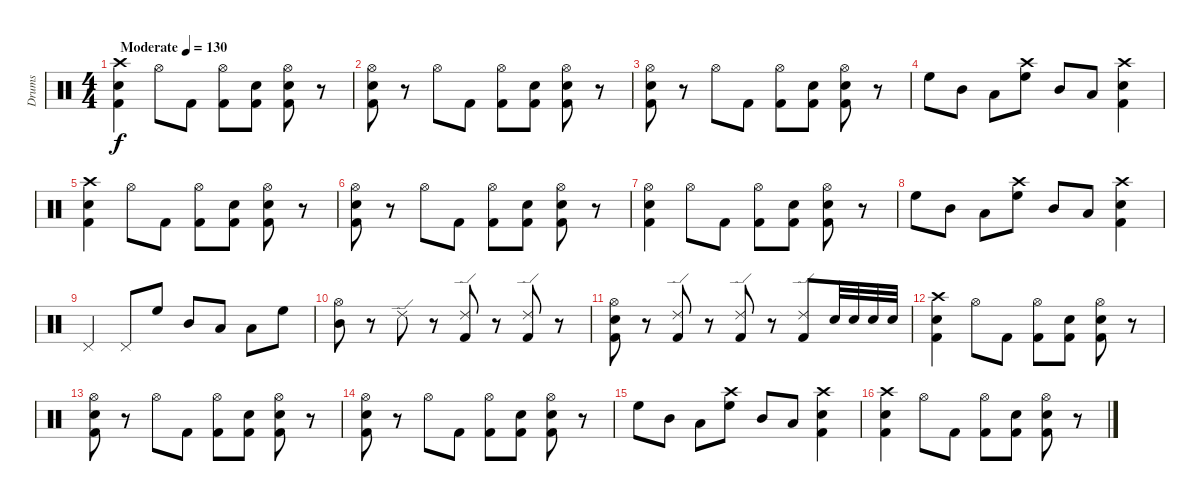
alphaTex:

\track ("Drums" "Drums") {instrument percussion}
\staff {score}
\articulation defaults
\ts (4 4)
\tempo (130 "Moderate")
\clef neutral
\ks c
("Crash high (hit)" "Electric Snare (hit)" "Kick (hit) 2").4{dy f} "Hi-Hat (open)".8 "Kick (hit) 2".8 ("Hi-Hat (open)" "Kick (hit) 2").8 ("Electric Snare (hit)" "Kick (hit) 2").8 ("Hi-Hat (open)" "Electric Snare (hit)" "Kick (hit) 2").8 r.8 |
("Hi-Hat (open)" "Electric Snare (hit)" "Kick (hit) 2").8 r.8 "Hi-Hat (open)".8 "Kick (hit) 2".8 ("Hi-Hat (open)" "Kick (hit) 2").8 ("Electric Snare (hit)" "Kick (hit) 2").8 ("Hi-Hat (open)" "Electric Snare (hit)" "Kick (hit) 2").8 r.8 |
("Hi-Hat (open)" "Electric Snare (hit)" "Kick (hit) 2").8 r.8 "Hi-Hat (open)".8 "Kick (hit) 2".8 ("Hi-Hat (open)" "Kick (hit) 2").8 ("Electric Snare (hit)" "Kick (hit) 2").8 ("Hi-Hat (open)" "Electric Snare (hit)" "Kick (hit) 2").8 r.8 |
"High Floor Tom (hit)".8 "Mid Tom (hit)".8 "Low Tom (hit)".8 ("Crash high (hit)" "High Floor Tom (hit)").8 "Mid Tom (hit)".8 "Low Tom (hit)".8 ("Crash high (hit)" "Electric Snare (hit)" "Kick (hit) 2").4 |
("Crash high (hit)" "Electric Snare (hit)" "Kick (hit) 2").4 "Hi-Hat (open)".8 "Kick (hit) 2".8 ("Hi-Hat (open)" "Kick (hit) 2").8 ("Electric Snare (hit)" "Kick (hit) 2").8 ("Hi-Hat (open)" "Electric Snare (hit)" "Kick (hit) 2").8 r.8 |
("Hi-Hat (open)" "Electric Snare (hit)" "Kick (hit) 2").8 r.8 "Hi-Hat (open)".8 "Kick (hit) 2".8 ("Hi-Hat (open)" "Kick (hit) 2").8 ("Electric Snare (hit)" "Kick (hit) 2").8 ("Hi-Hat (open)" "Electric Snare (hit)" "Kick (hit) 2").8 r.8 |
("Hi-Hat (open)" "Electric Snare (hit)" "Kick (hit) 2").4 "Hi-Hat (open)".8 "Kick (hit) 2".8 ("Hi-Hat (open)" "Kick (hit) 2").8 ("Electric Snare (hit)" "Kick (hit) 2").8 ("Hi-Hat (open)" "Electric Snare (hit)" "Kick (hit) 2").8 r.8 |
"High Floor Tom (hit)".8 "Mid Tom (hit)".8 "Low Tom (hit)".8 ("Crash high (hit)" "High Floor Tom (hit)").8 "Mid Tom (hit)".8 "Low Tom (hit)".8 ("Crash high (hit)" "Electric Snare (hit)" "Kick (hit) 2").4 |
"Pedal Hi-Hat (hit)".4 "Pedal Hi-Hat (hit)".8 "High Floor Tom (hit)".8 "Mid Tom (hit)".8 "Low Tom (hit)".8 "Low Floor Tom (hit)".8 "High Floor Tom (hit)".8 |
("Hi-Hat (open)" "Mid Tom (hit)").8 r.8 "Ride (edge) 2".8 r.8 ("Ride (edge) 2" "Kick (hit) 2").8 r.8 ("Ride (edge) 2" "Kick (hit) 2").8 r.8 |
("Hi-Hat (open)" "Electric Snare (hit)" "Kick (hit) 2").8 r.8 ("Ride (edge) 2" "Kick (hit) 2").8 r.8 ("Ride (edge) 2" "Kick (hit) 2").8 r.8 ("Ride (edge) 2" "Kick (hit) 2").8 "Electric Snare (hit)".32 "Snare (hit) 2".32 "Electric Snare (hit)".32 "Snare (hit) 2".32 |
("Crash high (hit)" "Electric Snare (hit)" "Kick (hit) 2").4 "Hi-Hat (open)".8 "Kick (hit) 2".8 ("Hi-Hat (open)" "Kick (hit) 2").8 ("Electric Snare (hit)" "Kick (hit) 2").8 ("Hi-Hat (open)" "Electric Snare (hit)" "Kick (hit) 2").8 r.8 |
("Hi-Hat (open)" "Electric Snare (hit)" "Kick (hit) 2").8 r.8 "Hi-Hat (open)".8 "Kick (hit) 2".8 ("Hi-Hat (open)" "Kick (hit) 2").8 ("Electric Snare (hit)" "Kick (hit) 2").8 ("Hi-Hat (open)" "Electric Snare (hit)" "Kick (hit) 2").8 r.8 |
("Hi-Hat (open)" "Electric Snare (hit)" "Kick (hit) 2").8 r.8 "Hi-Hat (open)".8 "Kick (hit) 2".8 ("Hi-Hat (open)" "Kick (hit) 2").8 ("Electric Snare (hit)" "Kick (hit) 2").8 ("Hi-Hat (open)" "Electric Snare (hit)" "Kick (hit) 2").8 r.8 |
"High Floor Tom (hit)".8 "Mid Tom (hit)".8 "Low Tom (hit)".8 ("Crash high (hit)" "High Floor Tom (hit)").8 "Mid Tom (hit)".8 "Low Tom (hit)".8 ("Crash high (hit)" "Electric Snare (hit)" "Kick (hit) 2").4 |
("Crash high (hit)" "Electric Snare (hit)" "Kick (hit) 2").4 "Hi-Hat (open)".8 "Kick (hit) 2".8 ("Hi-Hat (open)" "Kick (hit) 2").8 ("Electric Snare (hit)" "Kick (hit) 2").8 ("Hi-Hat (open)" "Electric Snare (hit)" "Kick (hit) 2").8 r.8
